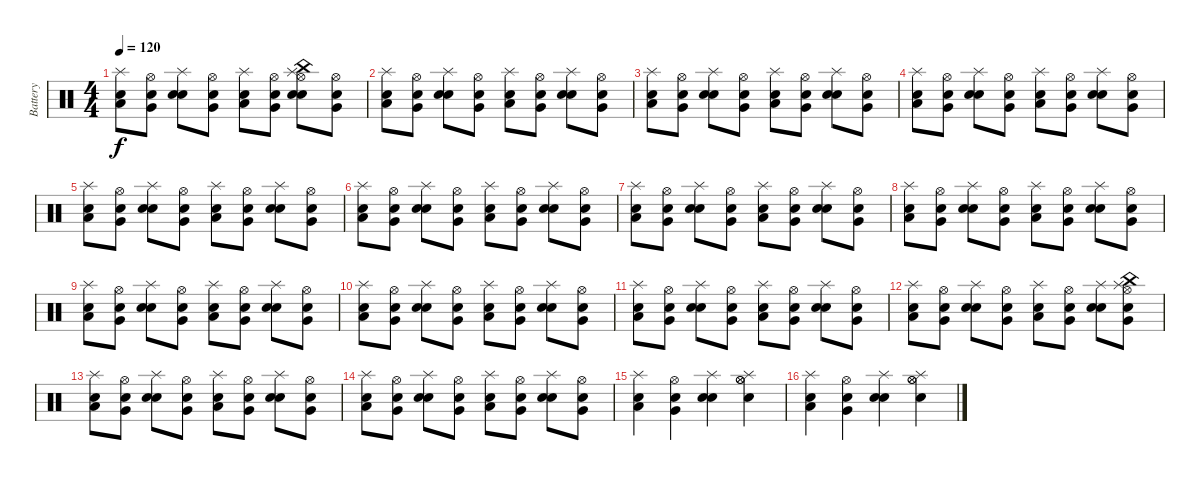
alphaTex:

\track ("Battery" "Battery") {instrument percussion}
\staff {score}
\articulation defaults
\ts (4 4)
\tempo 120
\clef neutral
\ks c
("Snare (hit) 2" "Low Floor Tom (hit)" "Splash (hit)").8{dy f} ("Snare (hit) 2" "Very Low Tom (hit)" "Hi-Hat (open)").8 ("Snare (hit) 2" "Electric Snare (hit)" "Splash (hit)").8 ("Snare (hit) 2" "Very Low Tom (hit)" "Hi-Hat (open)").8 ("Snare (hit) 2" "Low Floor Tom (hit)" "Splash (hit)").8 ("Snare (hit) 2" "Very Low Tom (hit)" "Hi-Hat (open)").8 ("Snare (hit) 2" "Electric Snare (hit)" "Splash (hit)" "Hi-Hat (open)" "China (hit)").8 ("Snare (hit) 2" "Very Low Tom (hit)" "Hi-Hat (open)").8 |
("Snare (hit) 2" "Low Floor Tom (hit)" "Splash (hit)").8 ("Snare (hit) 2" "Very Low Tom (hit)" "Hi-Hat (open)").8 ("Snare (hit) 2" "Electric Snare (hit)" "Splash (hit)").8 ("Snare (hit) 2" "Very Low Tom (hit)" "Hi-Hat (open)").8 ("Snare (hit) 2" "Low Floor Tom (hit)" "Splash (hit)").8 ("Snare (hit) 2" "Very Low Tom (hit)" "Hi-Hat (open)").8 ("Snare (hit) 2" "Electric Snare (hit)" "Splash (hit)").8 ("Snare (hit) 2" "Very Low Tom (hit)" "Hi-Hat (open)").8 |
("Snare (hit) 2" "Low Floor Tom (hit)" "Splash (hit)").8 ("Snare (hit) 2" "Very Low Tom (hit)" "Hi-Hat (open)").8 ("Snare (hit) 2" "Electric Snare (hit)" "Splash (hit)").8 ("Snare (hit) 2" "Very Low Tom (hit)" "Hi-Hat (open)").8 ("Snare (hit) 2" "Low Floor Tom (hit)" "Splash (hit)").8 ("Snare (hit) 2" "Very Low Tom (hit)" "Hi-Hat (open)").8 ("Snare (hit) 2" "Electric Snare (hit)" "Splash (hit)").8 ("Snare (hit) 2" "Very Low Tom (hit)" "Hi-Hat (open)").8 |
("Snare (hit) 2" "Low Floor Tom (hit)" "Splash (hit)").8 ("Snare (hit) 2" "Very Low Tom (hit)" "Hi-Hat (open)").8 ("Snare (hit) 2" "Electric Snare (hit)" "Splash (hit)").8 ("Snare (hit) 2" "Very Low Tom (hit)" "Hi-Hat (open)").8 ("Snare (hit) 2" "Low Floor Tom (hit)" "Splash (hit)").8 ("Snare (hit) 2" "Very Low Tom (hit)" "Hi-Hat (open)").8 ("Snare (hit) 2" "Electric Snare (hit)" "Splash (hit)").8 ("Snare (hit) 2" "Very Low Tom (hit)" "Hi-Hat (open)").8 |
("Snare (hit) 2" "Low Floor Tom (hit)" "Splash (hit)").8 ("Snare (hit) 2" "Very Low Tom (hit)" "Hi-Hat (open)").8 ("Snare (hit) 2" "Electric Snare (hit)" "Splash (hit)").8 ("Snare (hit) 2" "Very Low Tom (hit)" "Hi-Hat (open)").8 ("Snare (hit) 2" "Low Floor Tom (hit)" "Splash (hit)").8 ("Snare (hit) 2" "Very Low Tom (hit)" "Hi-Hat (open)").8 ("Snare (hit) 2" "Electric Snare (hit)" "Splash (hit)").8 ("Snare (hit) 2" "Very Low Tom (hit)" "Hi-Hat (open)").8 |
("Snare (hit) 2" "Low Floor Tom (hit)" "Splash (hit)").8 ("Snare (hit) 2" "Very Low Tom (hit)" "Hi-Hat (open)").8 ("Snare (hit) 2" "Electric Snare (hit)" "Splash (hit)").8 ("Snare (hit) 2" "Very Low Tom (hit)" "Hi-Hat (open)").8 ("Snare (hit) 2" "Low Floor Tom (hit)" "Splash (hit)").8 ("Snare (hit) 2" "Very Low Tom (hit)" "Hi-Hat (open)").8 ("Snare (hit) 2" "Electric Snare (hit)" "Splash (hit)").8 ("Snare (hit) 2" "Very Low Tom (hit)" "Hi-Hat (open)").8 |
("Snare (hit) 2" "Low Floor Tom (hit)" "Splash (hit)").8 ("Snare (hit) 2" "Very Low Tom (hit)" "Hi-Hat (open)").8 ("Snare (hit) 2" "Electric Snare (hit)" "Splash (hit)").8 ("Snare (hit) 2" "Very Low Tom (hit)" "Hi-Hat (open)").8 ("Snare (hit) 2" "Low Floor Tom (hit)" "Splash (hit)").8 ("Snare (hit) 2" "Very Low Tom (hit)" "Hi-Hat (open)").8 ("Snare (hit) 2" "Electric Snare (hit)" "Splash (hit)").8 ("Snare (hit) 2" "Very Low Tom (hit)" "Hi-Hat (open)").8 |
("Snare (hit) 2" "Low Floor Tom (hit)" "Splash (hit)").8 ("Snare (hit) 2" "Very Low Tom (hit)" "Hi-Hat (open)").8 ("Snare (hit) 2" "Electric Snare (hit)" "Splash (hit)").8 ("Snare (hit) 2" "Very Low Tom (hit)" "Hi-Hat (open)").8 ("Snare (hit) 2" "Low Floor Tom (hit)" "Splash (hit)").8 ("Snare (hit) 2" "Very Low Tom (hit)" "Hi-Hat (open)").8 ("Snare (hit) 2" "Electric Snare (hit)" "Splash (hit)").8 ("Snare (hit) 2" "Very Low Tom (hit)" "Hi-Hat (open)").8 |
("Snare (hit) 2" "Low Floor Tom (hit)" "Splash (hit)").8 ("Snare (hit) 2" "Very Low Tom (hit)" "Hi-Hat (open)").8 ("Snare (hit) 2" "Electric Snare (hit)" "Splash (hit)").8 ("Snare (hit) 2" "Very Low Tom (hit)" "Hi-Hat (open)").8 ("Snare (hit) 2" "Low Floor Tom (hit)" "Splash (hit)").8 ("Snare (hit) 2" "Very Low Tom (hit)" "Hi-Hat (open)").8 ("Snare (hit) 2" "Electric Snare (hit)" "Splash (hit)").8 ("Snare (hit) 2" "Very Low Tom (hit)" "Hi-Hat (open)").8 |
("Snare (hit) 2" "Low Floor Tom (hit)" "Splash (hit)").8 ("Snare (hit) 2" "Very Low Tom (hit)" "Hi-Hat (open)").8 ("Snare (hit) 2" "Electric Snare (hit)" "Splash (hit)").8 ("Snare (hit) 2" "Very Low Tom (hit)" "Hi-Hat (open)").8 ("Snare (hit) 2" "Low Floor Tom (hit)" "Splash (hit)").8 ("Snare (hit) 2" "Very Low Tom (hit)" "Hi-Hat (open)").8 ("Snare (hit) 2" "Electric Snare (hit)" "Splash (hit)").8 ("Snare (hit) 2" "Very Low Tom (hit)" "Hi-Hat (open)").8 |
("Snare (hit) 2" "Low Floor Tom (hit)" "Splash (hit)").8 ("Snare (hit) 2" "Very Low Tom (hit)" "Hi-Hat (open)").8 ("Snare (hit) 2" "Electric Snare (hit)" "Splash (hit)").8 ("Snare (hit) 2" "Very Low Tom (hit)" "Hi-Hat (open)").8 ("Snare (hit) 2" "Low Floor Tom (hit)" "Splash (hit)").8 ("Snare (hit) 2" "Very Low Tom (hit)" "Hi-Hat (open)").8 ("Snare (hit) 2" "Electric Snare (hit)" "Splash (hit)").8 ("Snare (hit) 2" "Very Low Tom (hit)" "Hi-Hat (open)").8 |
("Snare (hit) 2" "Low Floor Tom (hit)" "Splash (hit)").8 ("Snare (hit) 2" "Very Low Tom (hit)" "Hi-Hat (open)").8 ("Snare (hit) 2" "Electric Snare (hit)" "Splash (hit)").8 ("Snare (hit) 2" "Very Low Tom (hit)" "Hi-Hat (open)").8 ("Snare (hit) 2" "Low Floor Tom (hit)" "Splash (hit)").8 ("Snare (hit) 2" "Very Low Tom (hit)" "Hi-Hat (open)").8 ("Snare (hit) 2" "Electric Snare (hit)" "Splash (hit)").8 ("Snare (hit) 2" "Very Low Tom (hit)" "Splash (hit)" "Hi-Hat (open)" "China (hit)").8 |
("Snare (hit) 2" "Low Floor Tom (hit)" "Splash (hit)").8 ("Snare (hit) 2" "Very Low Tom (hit)" "Hi-Hat (open)").8 ("Snare (hit) 2" "Electric Snare (hit)" "Splash (hit)").8 ("Snare (hit) 2" "Very Low Tom (hit)" "Hi-Hat (open)").8 ("Snare (hit) 2" "Low Floor Tom (hit)" "Splash (hit)").8 ("Snare (hit) 2" "Very Low Tom (hit)" "Hi-Hat (open)").8 ("Snare (hit) 2" "Electric Snare (hit)" "Splash (hit)").8 ("Snare (hit) 2" "Very Low Tom (hit)" "Hi-Hat (open)").8 |
("Snare (hit) 2" "Low Floor Tom (hit)" "Splash (hit)").8 ("Snare (hit) 2" "Very Low Tom (hit)" "Hi-Hat (open)").8 ("Snare (hit) 2" "Electric Snare (hit)" "Splash (hit)").8 ("Snare (hit) 2" "Very Low Tom (hit)" "Hi-Hat (open)").8 ("Snare (hit) 2" "Low Floor Tom (hit)" "Splash (hit)").8 ("Snare (hit) 2" "Very Low Tom (hit)" "Hi-Hat (open)").8 ("Snare (hit) 2" "Electric Snare (hit)" "Splash (hit)").8 ("Snare (hit) 2" "Very Low Tom (hit)" "Hi-Hat (open)").8 |
("Snare (hit) 2" "Low Floor Tom (hit)" "Splash (hit)").4 ("Snare (hit) 2" "Very Low Tom (hit)" "Hi-Hat (open)").4 ("Snare (hit) 2" "Electric Snare (hit)" "Splash (hit)").4 ("Snare (hit) 2" "Hi-Hat (open)" "Splash (hit)" "Hi-Hat (open)").4 |
("Snare (hit) 2" "Low Floor Tom (hit)" "Splash (hit)").4 ("Snare (hit) 2" "Very Low Tom (hit)" "Hi-Hat (open)").4 ("Snare (hit) 2" "Electric Snare (hit)" "Splash (hit)").4 ("Snare (hit) 2" "Hi-Hat (open)" "Splash (hit)" "Hi-Hat (open)").4
